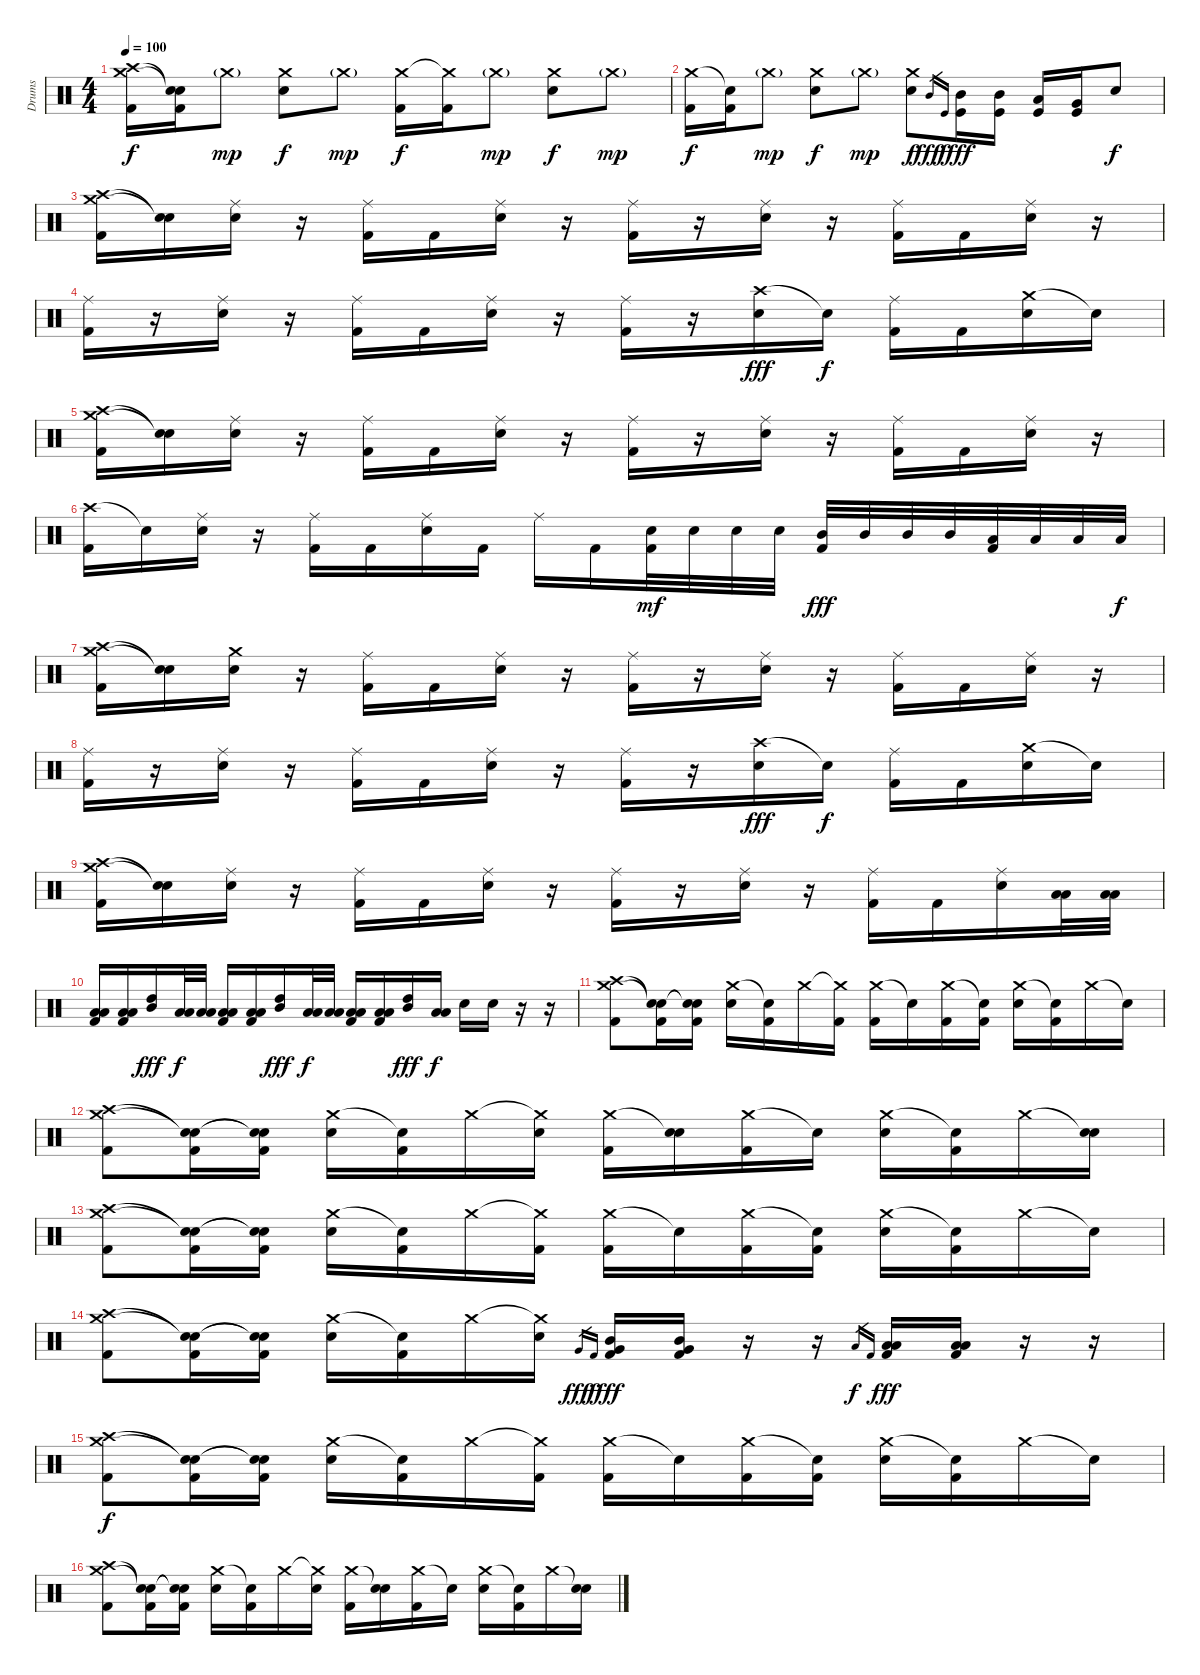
\track ("Drums" "Drums") {instrument percussion}
\staff {score}
\articulation defaults
\ts (4 4)
\tempo 100
\clef neutral
\ks c
("Crash medium (hit)" "Crash high (hit)" "Kick (hit) 2").16{dy f} ("Snare (hit)"{t} "Snare (hit)"{t} "Kick (hit) 2").16 "Crash medium (hit)"{g}.8{dy mp} ("Crash medium (hit)" "Electric Snare (hit)").8{dy f} "Crash medium (hit)"{g}.8{dy mp} ("Crash medium (hit)" "Kick (hit) 2").16{dy f} ("Crash medium (hit)"{t} "Kick (hit) 2").16 "Crash medium (hit)"{g}.8{dy mp} ("Crash medium (hit)" "Electric Snare (hit)").8{dy f} "Crash medium (hit)"{g}.8{dy mp} |
("Crash medium (hit)" "Kick (hit) 2").16{dy f} ("Snare (hit)"{t} "Kick (hit) 2").16 "Crash medium (hit)"{g}.8{dy mp} ("Crash medium (hit)" "Electric Snare (hit)").8{dy f} "Crash medium (hit)"{g}.8{dy mp} ("Crash medium (hit)" "Electric Snare (hit)").8{dy f} "Mid Tom (hit)".16{gr dy fff} "Kick (hit)".16{gr dy f} ("Mid Tom (hit)" "Kick (hit)").16{dy fff} ("Mid Tom (hit)" "Kick (hit)").16 ("Low Tom (hit)" "Kick (hit)").16 ("Very Low Tom (hit)" "Kick (hit)").16 "Electric Snare (hit)".8{dy f} |
("Crash high (hit)" "Crash medium (hit)" "Kick (hit) 2").16 ("Snare (hit)"{t} "Snare (hit)"{t}).16 ("Ride (middle)" "Electric Snare (hit)").16 r.16 ("Ride (middle)" "Kick (hit) 2").16 "Kick (hit) 2".16 ("Ride (middle)" "Electric Snare (hit)").16 r.16 ("Ride (middle)" "Kick (hit) 2").16 r.16 ("Ride (middle)" "Electric Snare (hit)").16 r.16 ("Ride (middle)" "Kick (hit) 2").16 "Kick (hit) 2".16 ("Ride (middle)" "Electric Snare (hit)").16 r.16 |
("Ride (middle)" "Kick (hit) 2").16 r.16 ("Ride (middle)" "Electric Snare (hit)").16 r.16 ("Ride (middle)" "Kick (hit) 2").16 "Kick (hit) 2".16 ("Ride (middle)" "Electric Snare (hit)").16 r.16 ("Ride (middle)" "Kick (hit) 2").16 r.16 ("Crash high (hit)" "Electric Snare (hit)").16{dy fff} "Snare (hit)"{t}.16{dy f} ("Ride (middle)" "Kick (hit) 2").16 "Kick (hit) 2".16 ("Crash medium (hit)" "Electric Snare (hit)").16 "Snare (hit)"{t}.16 |
("Crash high (hit)" "Crash medium (hit)" "Kick (hit) 2").16 ("Snare (hit)"{t} "Snare (hit)"{t}).16 ("Ride (middle)" "Electric Snare (hit)").16 r.16 ("Ride (middle)" "Kick (hit) 2").16 "Kick (hit) 2".16 ("Ride (middle)" "Electric Snare (hit)").16 r.16 ("Ride (middle)" "Kick (hit) 2").16 r.16 ("Ride (middle)" "Electric Snare (hit)").16 r.16 ("Ride (middle)" "Kick (hit) 2").16 "Kick (hit) 2".16 ("Ride (middle)" "Electric Snare (hit)").16 r.16 |
("Crash high (hit)" "Kick (hit) 2").16 "Snare (hit)"{t}.16 ("Ride (middle)" "Electric Snare (hit)").16 r.16 ("Ride (middle)" "Kick (hit) 2").16 "Kick (hit) 2".16 ("Ride (middle)" "Electric Snare (hit)").16 "Kick (hit) 2".16 "Ride (middle)".16 "Kick (hit) 2".16 ("Kick (hit) 2" "Electric Snare (hit)").32{dy mf} "Electric Snare (hit)".32 "Electric Snare (hit)".32 "Electric Snare (hit)".32 ("Mid Tom (hit)" "Kick (hit) 2").32{dy fff} "Mid Tom (hit)".32 "Mid Tom (hit)".32 "Mid Tom (hit)".32 ("Low Tom (hit)" "Kick (hit) 2").32 "Low Tom (hit)".32 "Low Tom (hit)".32 "Low Tom (hit)".32{dy f} |
("Crash high (hit)" "Crash medium (hit)" "Kick (hit) 2").16 ("Snare (hit)"{t} "Snare (hit)"{t}).16 ("Crash medium (hit)" "Electric Snare (hit)").16 r.16 ("Ride (middle)" "Kick (hit) 2").16 "Kick (hit) 2".16 ("Ride (middle)" "Electric Snare (hit)").16 r.16 ("Ride (middle)" "Kick (hit) 2").16 r.16 ("Ride (middle)" "Electric Snare (hit)").16 r.16 ("Ride (middle)" "Kick (hit) 2").16 "Kick (hit) 2".16 ("Ride (middle)" "Electric Snare (hit)").16 r.16 |
("Ride (middle)" "Kick (hit) 2").16 r.16 ("Ride (middle)" "Electric Snare (hit)").16 r.16 ("Ride (middle)" "Kick (hit) 2").16 "Kick (hit) 2".16 ("Ride (middle)" "Electric Snare (hit)").16 r.16 ("Ride (middle)" "Kick (hit) 2").16 r.16 ("Crash high (hit)" "Electric Snare (hit)").16{dy fff} "Snare (hit)"{t}.16{dy f} ("Ride (middle)" "Kick (hit) 2").16 "Kick (hit) 2".16 ("Crash medium (hit)" "Electric Snare (hit)").16 "Snare (hit)"{t}.16 |
("Crash high (hit)" "Crash medium (hit)" "Kick (hit) 2").16 ("Snare (hit)"{t} "Snare (hit)"{t}).16 ("Ride (middle)" "Electric Snare (hit)").16 r.16 ("Ride (middle)" "Kick (hit) 2").16 "Kick (hit) 2".16 ("Ride (middle)" "Electric Snare (hit)").16 r.16 ("Ride (middle)" "Kick (hit) 2").16 r.16 ("Ride (middle)" "Electric Snare (hit)").16 r.16 ("Ride (middle)" "Kick (hit) 2").16 "Kick (hit) 2".16 ("Ride (middle)" "Electric Snare (hit)").16 ("Low Tom (hit)" "Low Tom (hit)").32 ("Low Tom (hit)" "Low Tom (hit)").32 |
("Kick (hit) 2" "Low Tom (hit)" "Low Tom (hit)").16 ("Kick (hit) 2" "Low Tom (hit)" "Low Tom (hit)").16 ("High Tom (hit)" "Mid Tom (hit)").16{dy fff} ("Low Tom (hit)" "Low Tom (hit)").32{dy f} ("Low Tom (hit)" "Low Tom (hit)").32 ("Kick (hit) 2" "Low Tom (hit)" "Low Tom (hit)").16 ("Kick (hit) 2" "Low Tom (hit)" "Low Tom (hit)").16 ("High Tom (hit)" "Mid Tom (hit)").16{dy fff} ("Low Tom (hit)" "Low Tom (hit)").32{dy f} ("Low Tom (hit)" "Low Tom (hit)").32 ("Kick (hit) 2" "Low Tom (hit)" "Low Tom (hit)").16 ("Kick (hit) 2" "Low Tom (hit)" "Low Tom (hit)").16 ("High Tom (hit)" "Mid Tom (hit)").16{dy fff} ("Low Tom (hit)" "Low Tom (hit)").16{dy f} "Electric Snare (hit)".16 "Electric Snare (hit)".16 r.16 r.16 |
("Crash high (hit)" "Crash medium (hit)" "Kick (hit) 2").8 ("Snare (hit)"{t} "Snare (hit)"{t} "Kick (hit) 2").16 ("Snare (hit)"{t} "Snare (hit)"{t} "Kick (hit) 2").16 ("Crash medium (hit)" "Electric Snare (hit)").16 ("Snare (hit)"{t} "Kick (hit) 2").16 "Crash medium (hit)".16 ("Crash medium (hit)"{t} "Kick (hit) 2").16 ("Crash medium (hit)" "Kick (hit) 2").16 "Snare (hit)"{t}.16 ("Crash medium (hit)" "Kick (hit) 2").16 ("Snare (hit)"{t} "Kick (hit) 2").16 ("Crash medium (hit)" "Electric Snare (hit)").16 ("Snare (hit)"{t} "Kick (hit) 2").16 "Crash medium (hit)".16 "Snare (hit)"{t}.16 |
("Crash high (hit)" "Crash medium (hit)" "Kick (hit) 2").8 ("Snare (hit)"{t} "Snare (hit)"{t} "Kick (hit) 2").16 ("Snare (hit)"{t} "Snare (hit)"{t} "Kick (hit) 2").16 ("Crash medium (hit)" "Electric Snare (hit)").16 ("Snare (hit)"{t} "Kick (hit) 2").16 "Crash medium (hit)".16 ("Crash medium (hit)"{t} "Electric Snare (hit)").16 ("Crash medium (hit)" "Kick (hit) 2").16 ("Snare (hit)"{t} "Electric Snare (hit)").16 ("Crash medium (hit)" "Kick (hit) 2").16 "Snare (hit)"{t}.16 ("Crash medium (hit)" "Electric Snare (hit)").16 ("Snare (hit)"{t} "Kick (hit) 2").16 "Crash medium (hit)".16 ("Snare (hit)"{t} "Electric Snare (hit)").16 |
("Crash high (hit)" "Crash medium (hit)" "Kick (hit) 2").8 ("Snare (hit)"{t} "Snare (hit)"{t} "Kick (hit) 2").16 ("Snare (hit)"{t} "Snare (hit)"{t} "Kick (hit) 2").16 ("Crash medium (hit)" "Electric Snare (hit)").16 ("Snare (hit)"{t} "Kick (hit) 2").16 "Crash medium (hit)".16 ("Crash medium (hit)"{t} "Kick (hit) 2").16 ("Crash medium (hit)" "Kick (hit) 2").16 "Snare (hit)"{t}.16 ("Crash medium (hit)" "Kick (hit) 2").16 ("Snare (hit)"{t} "Kick (hit) 2").16 ("Crash medium (hit)" "Electric Snare (hit)").16 ("Snare (hit)"{t} "Kick (hit) 2").16 "Crash medium (hit)".16 "Snare (hit)"{t}.16 |
("Crash high (hit)" "Crash medium (hit)" "Kick (hit) 2").8 ("Snare (hit)"{t} "Snare (hit)"{t} "Kick (hit) 2").16 ("Snare (hit)"{t} "Snare (hit)"{t} "Kick (hit) 2").16 ("Crash medium (hit)" "Electric Snare (hit)").16 ("Snare (hit)"{t} "Kick (hit) 2").16 "Crash medium (hit)".16 ("Crash medium (hit)"{t} "Electric Snare (hit)").16 "Very Low Tom (hit)".16{gr dy fff} "Kick (hit) 2".16{gr dy f} ("Mid Tom (hit)" "Very Low Tom (hit)" "Kick (hit) 2").16{dy fff} ("Mid Tom (hit)" "Very Low Tom (hit)" "Kick (hit) 2").16 r.16 r.16 "Low Floor Tom (hit)".16{gr dy f} "Kick (hit) 2".16{gr} ("Low Tom (hit)" "Low Floor Tom (hit)" "Kick (hit) 2").16{dy fff} ("Low Tom (hit)" "Low Floor Tom (hit)" "Kick (hit) 2").16 r.16 r.16 |
("Crash high (hit)" "Crash medium (hit)" "Kick (hit) 2").8{dy f} ("Snare (hit)"{t} "Snare (hit)"{t} "Kick (hit) 2").16 ("Snare (hit)"{t} "Snare (hit)"{t} "Kick (hit) 2").16 ("Crash medium (hit)" "Electric Snare (hit)").16 ("Snare (hit)"{t} "Kick (hit) 2").16 "Crash medium (hit)".16 ("Crash medium (hit)"{t} "Kick (hit) 2").16 ("Crash medium (hit)" "Kick (hit) 2").16 "Snare (hit)"{t}.16 ("Crash medium (hit)" "Kick (hit) 2").16 ("Snare (hit)"{t} "Kick (hit) 2").16 ("Crash medium (hit)" "Electric Snare (hit)").16 ("Snare (hit)"{t} "Kick (hit) 2").16 "Crash medium (hit)".16 "Snare (hit)"{t}.16 |
("Crash high (hit)" "Crash medium (hit)" "Kick (hit) 2").8 ("Snare (hit)"{t} "Snare (hit)"{t} "Kick (hit) 2").16 ("Snare (hit)"{t} "Snare (hit)"{t} "Kick (hit) 2").16 ("Crash medium (hit)" "Electric Snare (hit)").16 ("Snare (hit)"{t} "Kick (hit) 2").16 "Crash medium (hit)".16 ("Crash medium (hit)"{t} "Electric Snare (hit)").16 ("Crash medium (hit)" "Kick (hit) 2").16 ("Snare (hit)"{t} "Electric Snare (hit)").16 ("Crash medium (hit)" "Kick (hit) 2").16 "Snare (hit)"{t}.16 ("Crash medium (hit)" "Electric Snare (hit)").16 ("Snare (hit)"{t} "Kick (hit) 2").16 "Crash medium (hit)".16 ("Snare (hit)"{t} "Electric Snare (hit)").16
